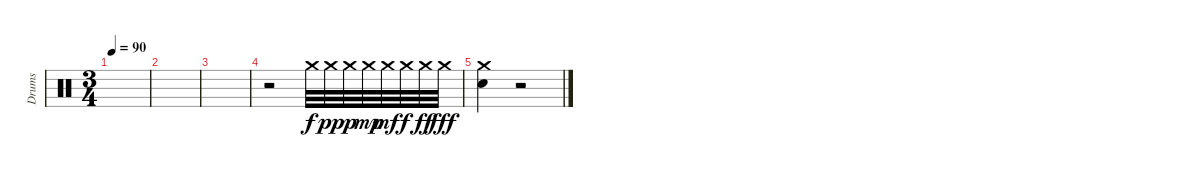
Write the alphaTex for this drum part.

\track ("Drums" "Drums") {instrument percussion}
\staff {score}
\articulation defaults
\ts (3 4)
\tempo 90
\clef neutral
\ks c
|
|
|
r.2 "Crash medium (hit)".32 "Crash medium (hit)".32{dy pp} "Crash medium (hit)".32{dy p} "Crash medium (hit)".32{dy mp} "Crash medium (hit)".32{dy mf} "Crash medium (hit)".32{dy f} "Crash medium (hit)".32{dy ff} "Crash medium (hit)".32{dy fff} |
("Crash medium (hit)" "Electric Snare (hit)").4 r.2
